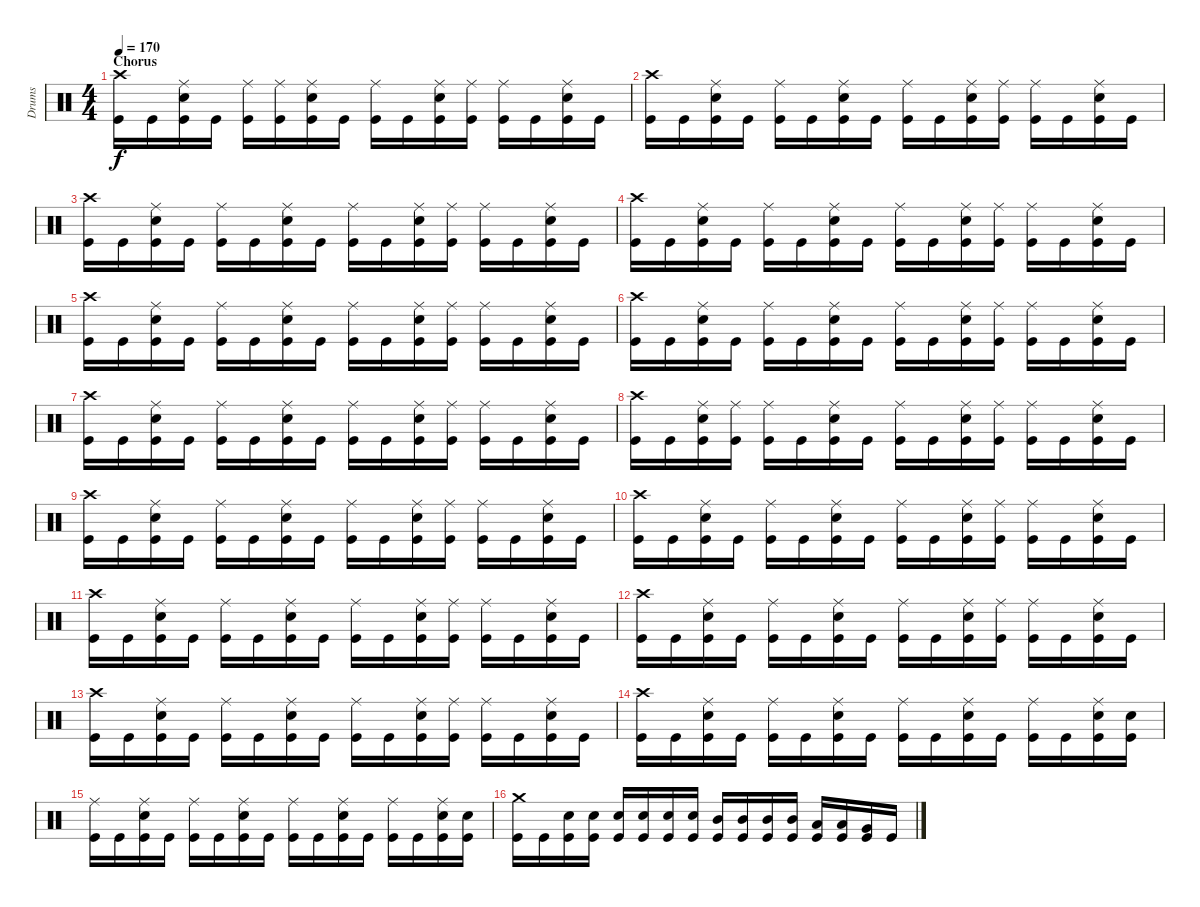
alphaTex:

\track ("Drums" "Drums") {instrument percussion}
\staff {score}
\articulation defaults
\ts (4 4)
\section ("" "Chorus")
\tempo 170
\clef neutral
\ks c
("Crash high (hit)" "Kick (hit)").16{dy f} "Kick (hit)".16 ("Ride (middle)" "Electric Snare (hit)" "Kick (hit)").16 "Kick (hit)".16 ("Ride (middle)" "Kick (hit)").16 ("Ride (middle)" "Kick (hit)").16 ("Ride (middle)" "Electric Snare (hit)" "Kick (hit)").16 "Kick (hit)".16 ("Ride (middle)" "Kick (hit)").16 "Kick (hit)".16 ("Ride (middle)" "Electric Snare (hit)" "Kick (hit)").16 ("Ride (middle)" "Kick (hit)").16 ("Ride (middle)" "Kick (hit)").16 "Kick (hit)".16 ("Ride (middle)" "Electric Snare (hit)" "Kick (hit)").16 "Kick (hit)".16 |
("Crash high (hit)" "Kick (hit)").16 "Kick (hit)".16 ("Ride (middle)" "Electric Snare (hit)" "Kick (hit)").16 "Kick (hit)".16 ("Ride (middle)" "Kick (hit)").16 "Kick (hit)".16 ("Ride (middle)" "Electric Snare (hit)" "Kick (hit)").16 "Kick (hit)".16 ("Ride (middle)" "Kick (hit)").16 "Kick (hit)".16 ("Ride (middle)" "Electric Snare (hit)" "Kick (hit)").16 ("Ride (middle)" "Kick (hit)").16 ("Ride (middle)" "Kick (hit)").16 "Kick (hit)".16 ("Ride (middle)" "Electric Snare (hit)" "Kick (hit)").16 "Kick (hit)".16 |
("Crash high (hit)" "Kick (hit)").16 "Kick (hit)".16 ("Ride (middle)" "Electric Snare (hit)" "Kick (hit)").16 "Kick (hit)".16 ("Ride (middle)" "Kick (hit)").16 "Kick (hit)".16 ("Ride (middle)" "Electric Snare (hit)" "Kick (hit)").16 "Kick (hit)".16 ("Ride (middle)" "Kick (hit)").16 "Kick (hit)".16 ("Ride (middle)" "Electric Snare (hit)" "Kick (hit)").16 ("Ride (middle)" "Kick (hit)").16 ("Ride (middle)" "Kick (hit)").16 "Kick (hit)".16 ("Ride (middle)" "Electric Snare (hit)" "Kick (hit)").16 "Kick (hit)".16 |
("Crash high (hit)" "Kick (hit)").16 "Kick (hit)".16 ("Ride (middle)" "Electric Snare (hit)" "Kick (hit)").16 "Kick (hit)".16 ("Ride (middle)" "Kick (hit)").16 "Kick (hit)".16 ("Ride (middle)" "Electric Snare (hit)" "Kick (hit)").16 "Kick (hit)".16 ("Ride (middle)" "Kick (hit)").16 "Kick (hit)".16 ("Ride (middle)" "Electric Snare (hit)" "Kick (hit)").16 ("Ride (middle)" "Kick (hit)").16 ("Ride (middle)" "Kick (hit)").16 "Kick (hit)".16 ("Ride (middle)" "Electric Snare (hit)" "Kick (hit)").16 "Kick (hit)".16 |
("Crash high (hit)" "Kick (hit)").16 "Kick (hit)".16 ("Ride (middle)" "Electric Snare (hit)" "Kick (hit)").16 "Kick (hit)".16 ("Ride (middle)" "Kick (hit)").16 "Kick (hit)".16 ("Ride (middle)" "Electric Snare (hit)" "Kick (hit)").16 "Kick (hit)".16 ("Ride (middle)" "Kick (hit)").16 "Kick (hit)".16 ("Ride (middle)" "Electric Snare (hit)" "Kick (hit)").16 ("Ride (middle)" "Kick (hit)").16 ("Ride (middle)" "Kick (hit)").16 "Kick (hit)".16 ("Ride (middle)" "Electric Snare (hit)" "Kick (hit)").16 "Kick (hit)".16 |
("Crash high (hit)" "Kick (hit)").16 "Kick (hit)".16 ("Ride (middle)" "Electric Snare (hit)" "Kick (hit)").16 "Kick (hit)".16 ("Ride (middle)" "Kick (hit)").16 "Kick (hit)".16 ("Ride (middle)" "Electric Snare (hit)" "Kick (hit)").16 "Kick (hit)".16 ("Ride (middle)" "Kick (hit)").16 "Kick (hit)".16 ("Ride (middle)" "Electric Snare (hit)" "Kick (hit)").16 ("Ride (middle)" "Kick (hit)").16 ("Ride (middle)" "Kick (hit)").16 "Kick (hit)".16 ("Ride (middle)" "Electric Snare (hit)" "Kick (hit)").16 "Kick (hit)".16 |
("Crash high (hit)" "Kick (hit)").16 "Kick (hit)".16 ("Ride (middle)" "Electric Snare (hit)" "Kick (hit)").16 "Kick (hit)".16 ("Ride (middle)" "Kick (hit)").16 "Kick (hit)".16 ("Ride (middle)" "Electric Snare (hit)" "Kick (hit)").16 "Kick (hit)".16 ("Ride (middle)" "Kick (hit)").16 "Kick (hit)".16 ("Ride (middle)" "Electric Snare (hit)" "Kick (hit)").16 ("Ride (middle)" "Kick (hit)").16 ("Ride (middle)" "Kick (hit)").16 "Kick (hit)".16 ("Ride (middle)" "Electric Snare (hit)" "Kick (hit)").16 "Kick (hit)".16 |
("Crash high (hit)" "Kick (hit)").16 "Kick (hit)".16 ("Ride (middle)" "Electric Snare (hit)" "Kick (hit)").16 ("Ride (middle)" "Kick (hit)").16 ("Ride (middle)" "Kick (hit)").16 "Kick (hit)".16 ("Ride (middle)" "Electric Snare (hit)" "Kick (hit)").16 "Kick (hit)".16 ("Ride (middle)" "Kick (hit)").16 "Kick (hit)".16 ("Ride (middle)" "Electric Snare (hit)" "Kick (hit)").16 ("Ride (middle)" "Kick (hit)").16 ("Ride (middle)" "Kick (hit)").16 "Kick (hit)".16 ("Ride (middle)" "Electric Snare (hit)" "Kick (hit)").16 "Kick (hit)".16 |
("Crash high (hit)" "Kick (hit)").16 "Kick (hit)".16 ("Ride (middle)" "Electric Snare (hit)" "Kick (hit)").16 "Kick (hit)".16 ("Ride (middle)" "Kick (hit)").16 "Kick (hit)".16 ("Ride (middle)" "Electric Snare (hit)" "Kick (hit)").16 "Kick (hit)".16 ("Ride (middle)" "Kick (hit)").16 "Kick (hit)".16 ("Ride (middle)" "Electric Snare (hit)" "Kick (hit)").16 ("Ride (middle)" "Kick (hit)").16 ("Ride (middle)" "Kick (hit)").16 "Kick (hit)".16 ("Ride (middle)" "Electric Snare (hit)" "Kick (hit)").16 "Kick (hit)".16 |
("Crash high (hit)" "Kick (hit)").16 "Kick (hit)".16 ("Ride (middle)" "Electric Snare (hit)" "Kick (hit)").16 "Kick (hit)".16 ("Ride (middle)" "Kick (hit)").16 "Kick (hit)".16 ("Ride (middle)" "Electric Snare (hit)" "Kick (hit)").16 "Kick (hit)".16 ("Ride (middle)" "Kick (hit)").16 "Kick (hit)".16 ("Ride (middle)" "Electric Snare (hit)" "Kick (hit)").16 ("Ride (middle)" "Kick (hit)").16 ("Ride (middle)" "Kick (hit)").16 "Kick (hit)".16 ("Ride (middle)" "Electric Snare (hit)" "Kick (hit)").16 "Kick (hit)".16 |
("Crash high (hit)" "Kick (hit)").16 "Kick (hit)".16 ("Ride (middle)" "Electric Snare (hit)" "Kick (hit)").16 "Kick (hit)".16 ("Ride (middle)" "Kick (hit)").16 "Kick (hit)".16 ("Ride (middle)" "Electric Snare (hit)" "Kick (hit)").16 "Kick (hit)".16 ("Ride (middle)" "Kick (hit)").16 "Kick (hit)".16 ("Ride (middle)" "Electric Snare (hit)" "Kick (hit)").16 ("Ride (middle)" "Kick (hit)").16 ("Ride (middle)" "Kick (hit)").16 "Kick (hit)".16 ("Ride (middle)" "Electric Snare (hit)" "Kick (hit)").16 "Kick (hit)".16 |
("Crash high (hit)" "Kick (hit)").16 "Kick (hit)".16 ("Ride (middle)" "Electric Snare (hit)" "Kick (hit)").16 "Kick (hit)".16 ("Ride (middle)" "Kick (hit)").16 "Kick (hit)".16 ("Ride (middle)" "Electric Snare (hit)" "Kick (hit)").16 "Kick (hit)".16 ("Ride (middle)" "Kick (hit)").16 "Kick (hit)".16 ("Ride (middle)" "Electric Snare (hit)" "Kick (hit)").16 ("Ride (middle)" "Kick (hit)").16 ("Ride (middle)" "Kick (hit)").16 "Kick (hit)".16 ("Ride (middle)" "Electric Snare (hit)" "Kick (hit)").16 "Kick (hit)".16 |
("Crash high (hit)" "Kick (hit)").16 "Kick (hit)".16 ("Ride (middle)" "Electric Snare (hit)" "Kick (hit)").16 "Kick (hit)".16 ("Ride (middle)" "Kick (hit)").16 "Kick (hit)".16 ("Ride (middle)" "Electric Snare (hit)" "Kick (hit)").16 "Kick (hit)".16 ("Ride (middle)" "Kick (hit)").16 "Kick (hit)".16 ("Ride (middle)" "Electric Snare (hit)" "Kick (hit)").16 ("Ride (middle)" "Kick (hit)").16 ("Ride (middle)" "Kick (hit)").16 "Kick (hit)".16 ("Ride (middle)" "Electric Snare (hit)" "Kick (hit)").16 "Kick (hit)".16 |
("Crash high (hit)" "Kick (hit)").16 "Kick (hit)".16 ("Ride (middle)" "Electric Snare (hit)" "Kick (hit)").16 "Kick (hit)".16 ("Ride (middle)" "Kick (hit)").16 "Kick (hit)".16 ("Ride (middle)" "Electric Snare (hit)" "Kick (hit)").16 "Kick (hit)".16 ("Ride (middle)" "Kick (hit)").16 "Kick (hit)".16 ("Ride (middle)" "Electric Snare (hit)" "Kick (hit)").16 "Kick (hit)".16 ("Ride (middle)" "Kick (hit)").16 "Kick (hit)".16 ("Ride (middle)" "Electric Snare (hit)" "Kick (hit)").16 ("Electric Snare (hit)" "Kick (hit)").16 |
("Ride (middle)" "Kick (hit)").16 "Kick (hit)".16 ("Ride (middle)" "Electric Snare (hit)" "Kick (hit)").16 "Kick (hit)".16 ("Ride (middle)" "Kick (hit)").16 "Kick (hit)".16 ("Ride (middle)" "Electric Snare (hit)" "Kick (hit)").16 "Kick (hit)".16 ("Ride (middle)" "Kick (hit)").16 "Kick (hit)".16 ("Ride (middle)" "Electric Snare (hit)" "Kick (hit)").16 "Kick (hit)".16 ("Ride (middle)" "Kick (hit)").16 "Kick (hit)".16 ("Ride (middle)" "Electric Snare (hit)" "Kick (hit)").16 ("Electric Snare (hit)" "Kick (hit)").16 |
("Crash medium (hit)" "Kick (hit)").16 "Kick (hit)".16 ("Electric Snare (hit)" "Kick (hit)").16 ("Electric Snare (hit)" "Kick (hit)").16 ("Electric Snare (hit)" "Kick (hit)").16 ("Electric Snare (hit)" "Kick (hit)").16 ("Electric Snare (hit)" "Kick (hit)").16 ("Electric Snare (hit)" "Kick (hit)").16 ("Mid Tom (hit)" "Kick (hit)").16 ("Mid Tom (hit)" "Kick (hit)").16 ("Mid Tom (hit)" "Kick (hit)").16 ("Mid Tom (hit)" "Kick (hit)").16 ("Low Tom (hit)" "Kick (hit)").16 ("Low Tom (hit)" "Kick (hit)").16 ("Very Low Tom (hit)" "Kick (hit)").16 "Kick (hit)".16
